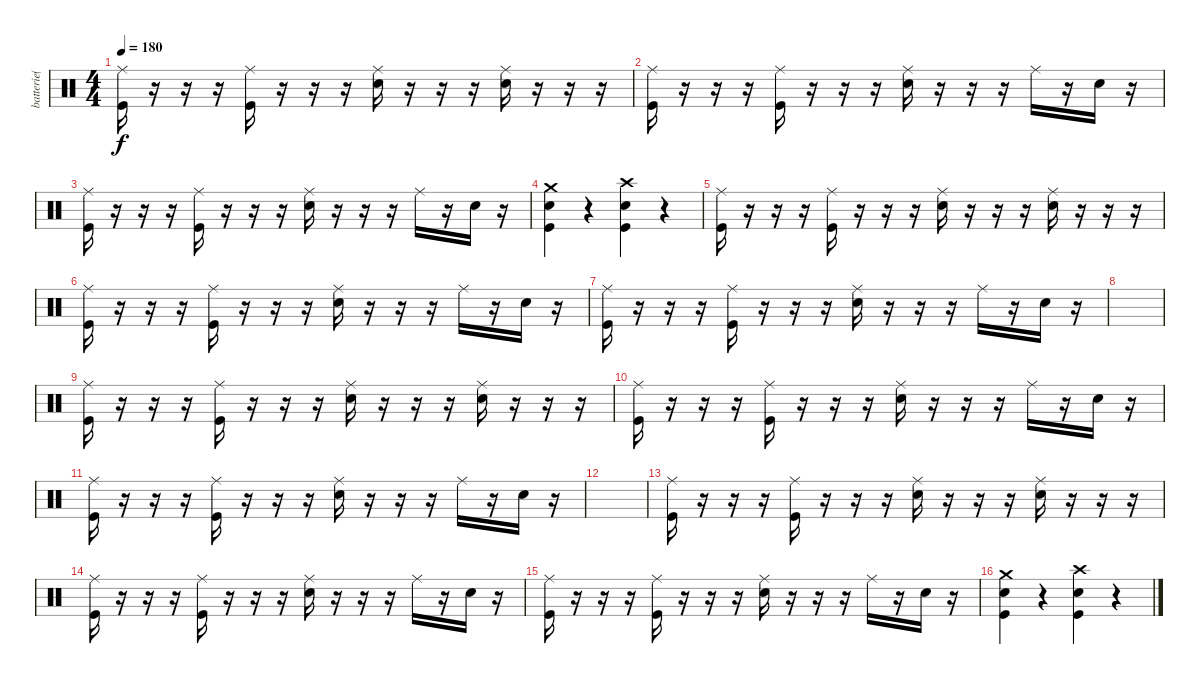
\track ("batterie( Rob )" "batterie( ") {instrument percussion}
\staff {score}
\articulation defaults
\ts (4 4)
\tempo 180
\clef neutral
\ks c
("Ride (middle)" "Kick (hit)").16{dy f} r.16 r.16 r.16 ("Ride (middle)" "Kick (hit)").16 r.16 r.16 r.16 ("Ride (middle)" "Snare (hit) 2").16 r.16 r.16 r.16 ("Ride (middle)" "Snare (hit) 2").16 r.16 r.16 r.16 |
("Ride (middle)" "Kick (hit)").16 r.16 r.16 r.16 ("Ride (middle)" "Kick (hit)").16 r.16 r.16 r.16 ("Ride (middle)" "Snare (hit) 2").16 r.16 r.16 r.16 "Ride (middle)".16 r.16 "Snare (hit) 2".16 r.16 |
("Ride (middle)" "Kick (hit)").16 r.16 r.16 r.16 ("Ride (middle)" "Kick (hit)").16 r.16 r.16 r.16 ("Ride (middle)" "Snare (hit) 2").16 r.16 r.16 r.16 "Ride (middle)".16 r.16 "Snare (hit) 2".16 r.16 |
("Crash medium (hit)" "Snare (hit) 2" "Kick (hit)").4 r.4 ("Crash high (hit)" "Snare (hit) 2" "Kick (hit)").4 r.4 |
("Ride (middle)" "Kick (hit)").16 r.16 r.16 r.16 ("Ride (middle)" "Kick (hit)").16 r.16 r.16 r.16 ("Ride (middle)" "Snare (hit) 2").16 r.16 r.16 r.16 ("Ride (middle)" "Snare (hit) 2").16 r.16 r.16 r.16 |
("Ride (middle)" "Kick (hit)").16 r.16 r.16 r.16 ("Ride (middle)" "Kick (hit)").16 r.16 r.16 r.16 ("Ride (middle)" "Snare (hit) 2").16 r.16 r.16 r.16 "Ride (middle)".16 r.16 "Snare (hit) 2".16 r.16 |
("Ride (middle)" "Kick (hit)").16 r.16 r.16 r.16 ("Ride (middle)" "Kick (hit)").16 r.16 r.16 r.16 ("Ride (middle)" "Snare (hit) 2").16 r.16 r.16 r.16 "Ride (middle)".16 r.16 "Snare (hit) 2".16 r.16 |
|
("Ride (middle)" "Kick (hit)").16 r.16 r.16 r.16 ("Ride (middle)" "Kick (hit)").16 r.16 r.16 r.16 ("Ride (middle)" "Snare (hit) 2").16 r.16 r.16 r.16 ("Ride (middle)" "Snare (hit) 2").16 r.16 r.16 r.16 |
("Ride (middle)" "Kick (hit)").16 r.16 r.16 r.16 ("Ride (middle)" "Kick (hit)").16 r.16 r.16 r.16 ("Ride (middle)" "Snare (hit) 2").16 r.16 r.16 r.16 "Ride (middle)".16 r.16 "Snare (hit) 2".16 r.16 |
("Ride (middle)" "Kick (hit)").16 r.16 r.16 r.16 ("Ride (middle)" "Kick (hit)").16 r.16 r.16 r.16 ("Ride (middle)" "Snare (hit) 2").16 r.16 r.16 r.16 "Ride (middle)".16 r.16 "Snare (hit) 2".16 r.16 |
|
("Ride (middle)" "Kick (hit)").16 r.16 r.16 r.16 ("Ride (middle)" "Kick (hit)").16 r.16 r.16 r.16 ("Ride (middle)" "Snare (hit) 2").16 r.16 r.16 r.16 ("Ride (middle)" "Snare (hit) 2").16 r.16 r.16 r.16 |
("Ride (middle)" "Kick (hit)").16 r.16 r.16 r.16 ("Ride (middle)" "Kick (hit)").16 r.16 r.16 r.16 ("Ride (middle)" "Snare (hit) 2").16 r.16 r.16 r.16 "Ride (middle)".16 r.16 "Snare (hit) 2".16 r.16 |
("Ride (middle)" "Kick (hit)").16 r.16 r.16 r.16 ("Ride (middle)" "Kick (hit)").16 r.16 r.16 r.16 ("Ride (middle)" "Snare (hit) 2").16 r.16 r.16 r.16 "Ride (middle)".16 r.16 "Snare (hit) 2".16 r.16 |
("Crash medium (hit)" "Snare (hit) 2" "Kick (hit)").4 r.4 ("Crash high (hit)" "Snare (hit) 2" "Kick (hit)").4 r.4
